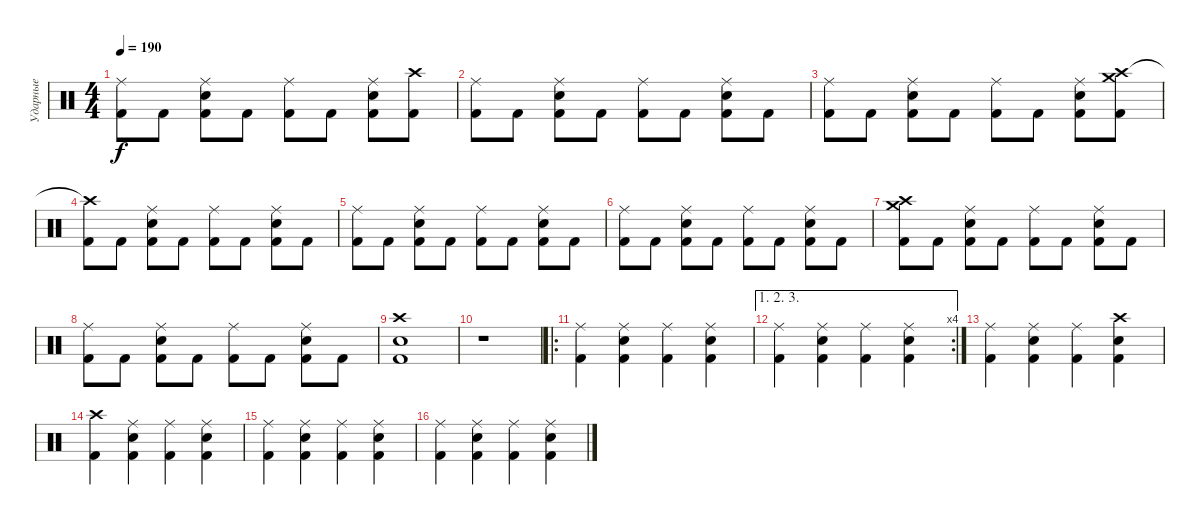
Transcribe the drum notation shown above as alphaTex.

\track ("Ударные" "Ударные") {instrument percussion}
\staff
\articulation defaults
\ts (4 4)
\tempo 190
\clef neutral
\ks c
("Ride (middle)" "Kick (hit) 2").8{dy f} "Kick (hit) 2".8 ("Ride (middle)" "Snare (hit) 2" "Kick (hit) 2").8 "Kick (hit) 2".8 ("Ride (middle)" "Kick (hit) 2").8 "Kick (hit) 2".8 ("Ride (middle)" "Snare (hit) 2" "Kick (hit) 2").8 ("Crash high (hit)" "Kick (hit) 2").8 |
("Ride (middle)" "Kick (hit) 2").8 "Kick (hit) 2".8 ("Ride (middle)" "Snare (hit) 2" "Kick (hit) 2").8 "Kick (hit) 2".8 ("Ride (middle)" "Kick (hit) 2").8 "Kick (hit) 2".8 ("Ride (middle)" "Snare (hit) 2" "Kick (hit) 2").8 "Kick (hit) 2".8 |
("Ride (middle)" "Kick (hit) 2").8 "Kick (hit) 2".8 ("Ride (middle)" "Snare (hit) 2" "Kick (hit) 2").8 "Kick (hit) 2".8 ("Ride (middle)" "Kick (hit) 2").8 "Kick (hit) 2".8 ("Ride (middle)" "Snare (hit) 2" "Kick (hit) 2").8 ("Crash high (hit)" "Crash medium (hit)" "Kick (hit) 2").8 |
("Crash high (hit)"{t} "Kick (hit) 2").8 "Kick (hit) 2".8 ("Ride (middle)" "Snare (hit) 2" "Kick (hit) 2").8 "Kick (hit) 2".8 ("Ride (middle)" "Kick (hit) 2").8 "Kick (hit) 2".8 ("Ride (middle)" "Snare (hit) 2" "Kick (hit) 2").8 "Kick (hit) 2".8 |
("Ride (middle)" "Kick (hit) 2").8 "Kick (hit) 2".8 ("Ride (middle)" "Snare (hit) 2" "Kick (hit) 2").8 "Kick (hit) 2".8 ("Ride (middle)" "Kick (hit) 2").8 "Kick (hit) 2".8 ("Ride (middle)" "Snare (hit) 2" "Kick (hit) 2").8 "Kick (hit) 2".8 |
("Ride (middle)" "Kick (hit) 2").8 "Kick (hit) 2".8 ("Ride (middle)" "Snare (hit) 2" "Kick (hit) 2").8 "Kick (hit) 2".8 ("Ride (middle)" "Kick (hit) 2").8 "Kick (hit) 2".8 ("Ride (middle)" "Snare (hit) 2" "Kick (hit) 2").8 "Kick (hit) 2".8 |
("Crash high (hit)" "Crash medium (hit)" "Kick (hit) 2").8 "Kick (hit) 2".8 ("Ride (middle)" "Snare (hit) 2" "Kick (hit) 2").8 "Kick (hit) 2".8 ("Ride (middle)" "Kick (hit) 2").8 "Kick (hit) 2".8 ("Ride (middle)" "Snare (hit) 2" "Kick (hit) 2").8 "Kick (hit) 2".8 |
("Ride (middle)" "Kick (hit) 2").8 "Kick (hit) 2".8 ("Ride (middle)" "Snare (hit) 2" "Kick (hit) 2").8 "Kick (hit) 2".8 ("Ride (middle)" "Kick (hit) 2").8 "Kick (hit) 2".8 ("Ride (middle)" "Snare (hit) 2" "Kick (hit) 2").8 "Kick (hit) 2".8 |
("Kick (hit) 2" "Snare (hit) 2" "Crash high (hit)").1 |
r.1 |
\ro
("Ride (middle)" "Kick (hit) 2").4 ("Ride (middle)" "Snare (hit) 2" "Kick (hit) 2").4 ("Ride (middle)" "Kick (hit) 2").4 ("Ride (middle)" "Snare (hit) 2" "Kick (hit) 2").4 |
\ae (1 2 3)
\rc 4
("Ride (middle)" "Kick (hit) 2").4 ("Ride (middle)" "Snare (hit) 2" "Kick (hit) 2").4 ("Ride (middle)" "Kick (hit) 2").4 ("Ride (middle)" "Snare (hit) 2" "Kick (hit) 2").4 |
("Ride (middle)" "Kick (hit) 2").4 ("Ride (middle)" "Snare (hit) 2" "Kick (hit) 2").4 ("Ride (middle)" "Kick (hit) 2").4 ("Crash high (hit)" "Snare (hit) 2" "Kick (hit) 2").4 |
("Crash high (hit)" "Kick (hit) 2").4 ("Ride (middle)" "Snare (hit) 2" "Kick (hit) 2").4 ("Ride (middle)" "Kick (hit) 2").4 ("Ride (middle)" "Snare (hit) 2" "Kick (hit) 2").4 |
("Ride (middle)" "Kick (hit) 2").4 ("Ride (middle)" "Snare (hit) 2" "Kick (hit) 2").4 ("Ride (middle)" "Kick (hit) 2").4 ("Ride (middle)" "Snare (hit) 2" "Kick (hit) 2").4 |
("Ride (middle)" "Kick (hit) 2").4 ("Ride (middle)" "Snare (hit) 2" "Kick (hit) 2").4 ("Ride (middle)" "Kick (hit) 2").4 ("Ride (middle)" "Snare (hit) 2" "Kick (hit) 2").4
